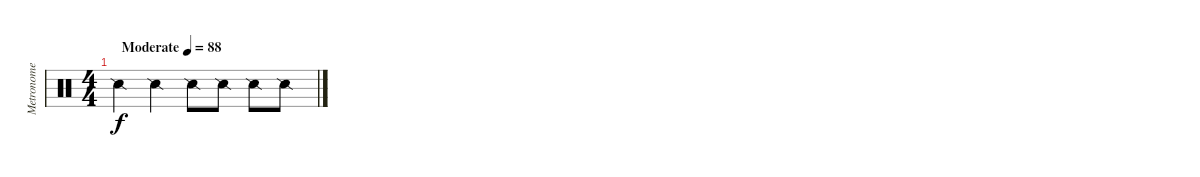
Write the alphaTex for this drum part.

\track ("Metronome" "Metronome") {instrument percussion}
\staff {score}
\articulation defaults
\ts (4 4)
\tempo (88 "Moderate")
\clef neutral
\ks c "Snare (side stick) 2".4{dy f} "Snare (side stick) 2".4 "Snare (side stick) 2".8 "Snare (side stick) 2".8 "Snare (side stick) 2".8 "Snare (side stick) 2".8
